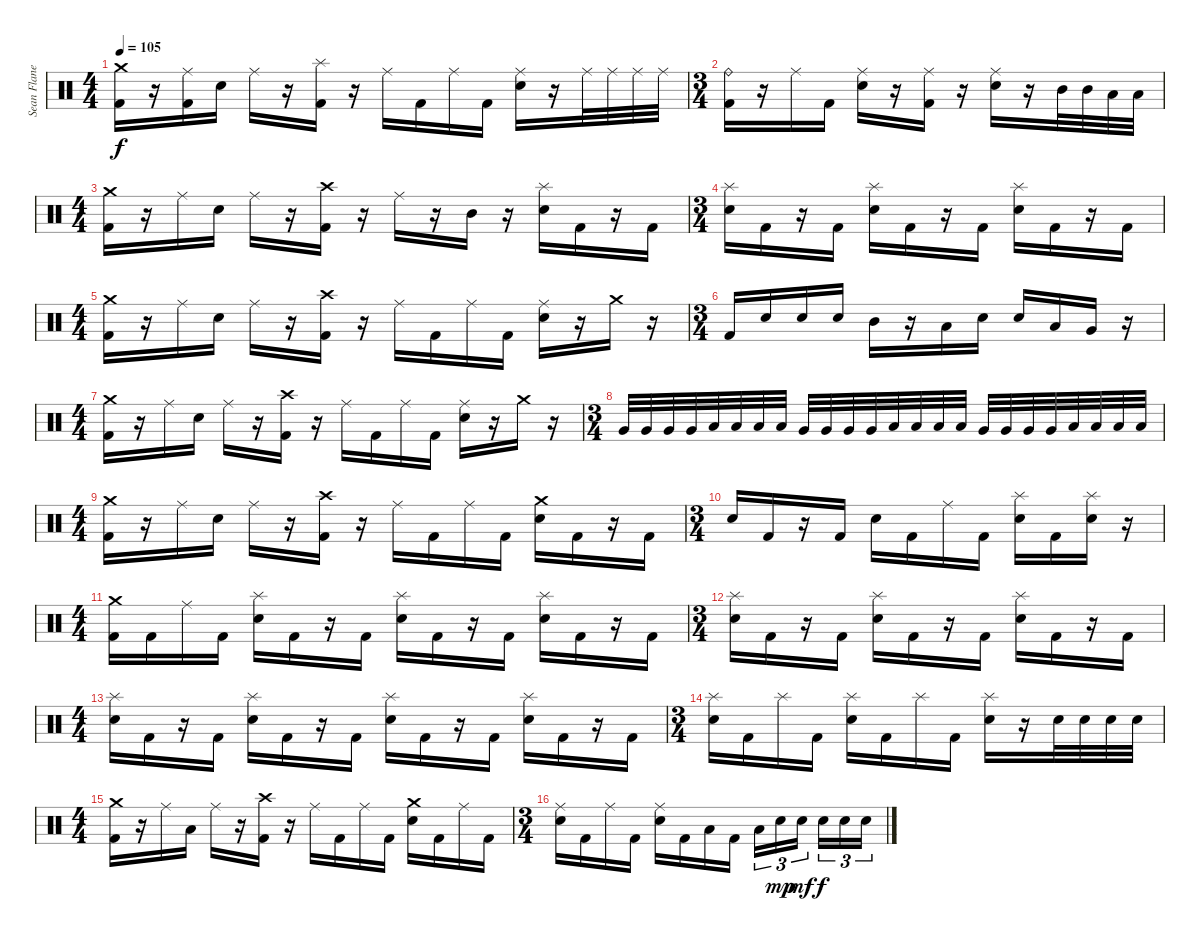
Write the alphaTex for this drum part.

\track ("Sean Flanegan [Drums]" "Sean Flane") {instrument percussion}
\staff {score}
\articulation defaults
\ts (4 4)
\tempo 105
\clef neutral
\ks c
("Crash medium (hit)" "Kick (hit) 2").16{dy f} r.16 ("Ride (middle)" "Kick (hit) 2").16 "Electric Snare (hit)".16 "Ride (middle)".16 r.16 ("Splash (hit)" "Kick (hit) 2").16 r.16 "Ride (middle)".16 "Kick (hit) 2".16 "Ride (middle)".16 "Kick (hit) 2".16 ("Ride (middle)" "Electric Snare (hit)").16 r.16 "Ride (middle)".32 "Ride (middle)".32 "Ride (middle)".32 "Ride (middle)".32 |
\ts (3 4)
("Ride (bell)" "Kick (hit) 2").16 r.16 "Ride (middle)".16 "Kick (hit) 2".16 ("Ride (middle)" "Electric Snare (hit)").16 r.16 ("Ride (middle)" "Kick (hit) 2").16 r.16 ("Ride (middle)" "Electric Snare (hit)").16 r.16 "Mid Tom (hit)".32 "Mid Tom (hit)".32 "Low Tom (hit)".32 "Low Tom (hit)".32 |
\ts (4 4)
("Crash medium (hit)" "Kick (hit) 2").16 r.16 "Ride (middle)".16 "Electric Snare (hit)".16 "Ride (middle)".16 r.16 ("Crash high (hit)" "Kick (hit) 2").16 r.16 "Ride (middle)".16 r.16 "Mid Tom (hit)".16 r.16 ("Splash (hit)" "Electric Snare (hit)").16 "Kick (hit) 2".16 r.16 "Kick (hit) 2".16 |
\ts (3 4)
("Splash (hit)" "Electric Snare (hit)").16 "Kick (hit) 2".16 r.16 "Kick (hit) 2".16 ("Splash (hit)" "Electric Snare (hit)").16 "Kick (hit) 2".16 r.16 "Kick (hit) 2".16 ("Splash (hit)" "Electric Snare (hit)").16 "Kick (hit) 2".16 r.16 "Kick (hit) 2".16 |
\ts (4 4)
("Crash medium (hit)" "Kick (hit) 2").16 r.16 "Ride (middle)".16 "Electric Snare (hit)".16 "Ride (middle)".16 r.16 ("Crash high (hit)" "Kick (hit) 2").16 r.16 "Ride (middle)".16 "Kick (hit) 2".16 "Ride (middle)".16 "Kick (hit) 2".16 ("Ride (middle)" "Electric Snare (hit)").16 r.16 "Crash medium (hit)".16 r.16 |
\ts (3 4)
"Kick (hit) 2".16 "Electric Snare (hit)".16 "Electric Snare (hit)".16 "Electric Snare (hit)".16 "Mid Tom (hit)".16 r.16 "Low Tom (hit)".16 "Electric Snare (hit)".16 "Electric Snare (hit)".16 "Low Tom (hit)".16 "Very Low Tom (hit)".16 r.16 |
\ts (4 4)
("Crash medium (hit)" "Kick (hit) 2").16 r.16 "Ride (middle)".16 "Electric Snare (hit)".16 "Ride (middle)".16 r.16 ("Crash high (hit)" "Kick (hit) 2").16 r.16 "Ride (middle)".16 "Kick (hit) 2".16 "Ride (middle)".16 "Kick (hit) 2".16 ("Ride (middle)" "Electric Snare (hit)").16 r.16 "Crash medium (hit)".16 r.16 |
\ts (3 4)
"Very Low Tom (hit)".32 "Very Low Tom (hit)".32 "Very Low Tom (hit)".32 "Very Low Tom (hit)".32 "Low Tom (hit)".32 "Low Tom (hit)".32 "Low Tom (hit)".32 "Low Tom (hit)".32 "Very Low Tom (hit)".32 "Very Low Tom (hit)".32 "Very Low Tom (hit)".32 "Very Low Tom (hit)".32 "Low Tom (hit)".32 "Low Tom (hit)".32 "Low Tom (hit)".32 "Low Tom (hit)".32 "Very Low Tom (hit)".32 "Very Low Tom (hit)".32 "Very Low Tom (hit)".32 "Very Low Tom (hit)".32 "Low Floor Tom (hit)".32 "Low Floor Tom (hit)".32 "Low Floor Tom (hit)".32 "Low Floor Tom (hit)".32 |
\ts (4 4)
("Crash medium (hit)" "Kick (hit) 2").16 r.16 "Ride (middle)".16 "Electric Snare (hit)".16 "Ride (middle)".16 r.16 ("Crash high (hit)" "Kick (hit) 2").16 r.16 "Ride (middle)".16 "Kick (hit) 2".16 "Ride (middle)".16 "Kick (hit) 2".16 ("Crash medium (hit)" "Electric Snare (hit)").16 "Kick (hit) 2".16 r.16 "Kick (hit) 2".16 |
\ts (3 4)
"Electric Snare (hit)".16 "Kick (hit) 2".16 r.16 "Kick (hit) 2".16 "Electric Snare (hit)".16 "Kick (hit) 2".16 "Ride (middle)".16 "Kick (hit) 2".16 ("Splash (hit)" "Electric Snare (hit)").16 "Kick (hit) 2".16 ("Splash (hit)" "Electric Snare (hit)").16 r.16 |
\ts (4 4)
("Crash medium (hit)" "Kick (hit) 2").16 "Kick (hit) 2".16 "Ride (middle)".16 "Kick (hit) 2".16 ("Splash (hit)" "Electric Snare (hit)").16 "Kick (hit) 2".16 r.16 "Kick (hit) 2".16 ("Splash (hit)" "Electric Snare (hit)").16 "Kick (hit) 2".16 r.16 "Kick (hit) 2".16 ("Splash (hit)" "Electric Snare (hit)").16 "Kick (hit) 2".16 r.16 "Kick (hit) 2".16 |
\ts (3 4)
("Splash (hit)" "Electric Snare (hit)").16 "Kick (hit) 2".16 r.16 "Kick (hit) 2".16 ("Splash (hit)" "Electric Snare (hit)").16 "Kick (hit) 2".16 r.16 "Kick (hit) 2".16 ("Splash (hit)" "Electric Snare (hit)").16 "Kick (hit) 2".16 r.16 "Kick (hit) 2".16 |
\ts (4 4)
("Splash (hit)" "Electric Snare (hit)").16 "Kick (hit) 2".16 r.16 "Kick (hit) 2".16 ("Splash (hit)" "Electric Snare (hit)").16 "Kick (hit) 2".16 r.16 "Kick (hit) 2".16 ("Splash (hit)" "Electric Snare (hit)").16 "Kick (hit) 2".16 r.16 "Kick (hit) 2".16 ("Splash (hit)" "Electric Snare (hit)").16 "Kick (hit) 2".16 r.16 "Kick (hit) 2".16 |
\ts (3 4)
("Splash (hit)" "Electric Snare (hit)").16 "Kick (hit) 2".16 "Splash (hit)".16 "Kick (hit) 2".16 ("Splash (hit)" "Electric Snare (hit)").16 "Kick (hit) 2".16 "Splash (hit)".16 "Kick (hit) 2".16 ("Splash (hit)" "Electric Snare (hit)").16 r.16 "Electric Snare (hit)".32 "Electric Snare (hit)".32 "Electric Snare (hit)".32 "Electric Snare (hit)".32 |
\ts (4 4)
("Crash medium (hit)" "Kick (hit) 2").16 r.16 "Ride (middle)".16 "Low Tom (hit)".16 "Ride (middle)".16 r.16 ("Crash high (hit)" "Kick (hit) 2").16 r.16 "Ride (middle)".16 "Kick (hit) 2".16 "Ride (middle)".16 "Kick (hit) 2".16 ("Crash medium (hit)" "Electric Snare (hit)").16 "Kick (hit) 2".16 "Ride (middle)".16 "Kick (hit) 2".16 |
\ts (3 4)
("Ride (middle)" "Electric Snare (hit)").16 "Kick (hit) 2".16 "Ride (middle)".16 "Kick (hit) 2".16 ("Ride (middle)" "Electric Snare (hit)").16 "Kick (hit) 2".16 "Low Tom (hit)".16 "Kick (hit) 2".16 "Low Tom (hit)".16{tu (3 2)} "Electric Snare (hit)".16{tu (3 2) dy mp} "Electric Snare (hit)".16{tu (3 2) dy mf} "Electric Snare (hit)".16{tu (3 2) dy f} "Electric Snare (hit)".16{tu (3 2)} "Electric Snare (hit)".16{tu (3 2)}
